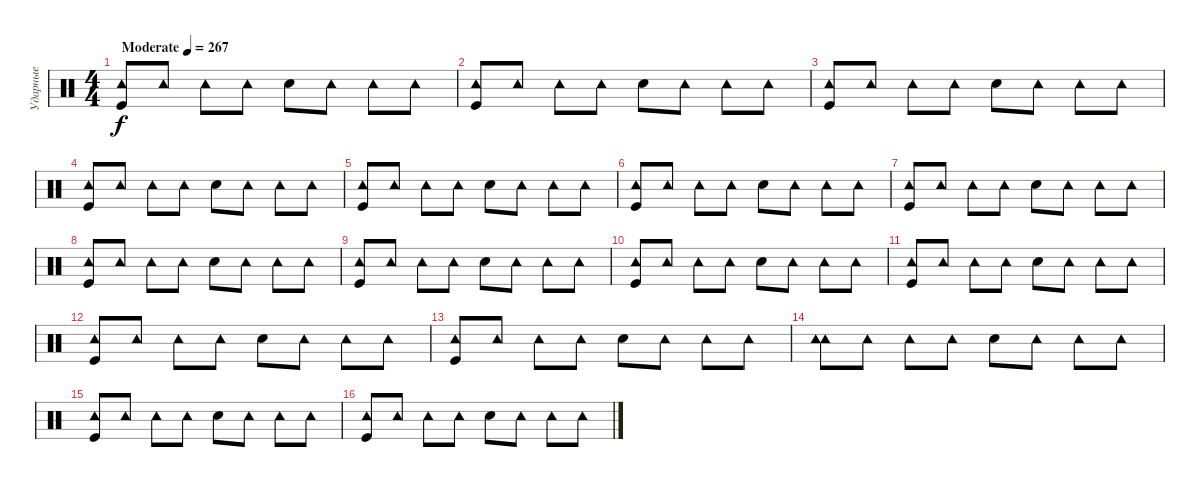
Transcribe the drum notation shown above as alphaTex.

\track ("Ударные" "Ударные") {instrument percussion}
\staff {score}
\articulation defaults
\ts (4 4)
\tempo (267 "Moderate")
\clef neutral
\ks c
("Kick (hit)" "Tambourine (hit)").8{dy f} "Tambourine (hit)".8 "Tambourine (hit)".8 "Tambourine (hit)".8 "Snare (hit) 2".8 "Tambourine (hit)".8 "Tambourine (hit)".8 "Tambourine (hit)".8 |
("Kick (hit)" "Tambourine (hit)").8 "Tambourine (hit)".8 "Tambourine (hit)".8 "Tambourine (hit)".8 "Snare (hit) 2".8 "Tambourine (hit)".8 "Tambourine (hit)".8 "Tambourine (hit)".8 |
("Kick (hit)" "Tambourine (hit)").8 "Tambourine (hit)".8 "Tambourine (hit)".8 "Tambourine (hit)".8 "Snare (hit) 2".8 "Tambourine (hit)".8 "Tambourine (hit)".8 "Tambourine (hit)".8 |
("Kick (hit)" "Tambourine (hit)").8 "Tambourine (hit)".8 "Tambourine (hit)".8 "Tambourine (hit)".8 "Snare (hit) 2".8 "Tambourine (hit)".8 "Tambourine (hit)".8 "Tambourine (hit)".8 |
("Kick (hit)" "Tambourine (hit)").8 "Tambourine (hit)".8 "Tambourine (hit)".8 "Tambourine (hit)".8 "Snare (hit) 2".8 "Tambourine (hit)".8 "Tambourine (hit)".8 "Tambourine (hit)".8 |
("Kick (hit)" "Tambourine (hit)").8 "Tambourine (hit)".8 "Tambourine (hit)".8 "Tambourine (hit)".8 "Snare (hit) 2".8 "Tambourine (hit)".8 "Tambourine (hit)".8 "Tambourine (hit)".8 |
("Kick (hit)" "Tambourine (hit)").8 "Tambourine (hit)".8 "Tambourine (hit)".8 "Tambourine (hit)".8 "Snare (hit) 2".8 "Tambourine (hit)".8 "Tambourine (hit)".8 "Tambourine (hit)".8 |
("Kick (hit)" "Tambourine (hit)").8 "Tambourine (hit)".8 "Tambourine (hit)".8 "Tambourine (hit)".8 "Snare (hit) 2".8 "Tambourine (hit)".8 "Tambourine (hit)".8 "Tambourine (hit)".8 |
("Kick (hit)" "Tambourine (hit)").8 "Tambourine (hit)".8 "Tambourine (hit)".8 "Tambourine (hit)".8 "Snare (hit) 2".8 "Tambourine (hit)".8 "Tambourine (hit)".8 "Tambourine (hit)".8 |
("Kick (hit)" "Tambourine (hit)").8 "Tambourine (hit)".8 "Tambourine (hit)".8 "Tambourine (hit)".8 "Snare (hit) 2".8 "Tambourine (hit)".8 "Tambourine (hit)".8 "Tambourine (hit)".8 |
("Kick (hit)" "Tambourine (hit)").8 "Tambourine (hit)".8 "Tambourine (hit)".8 "Tambourine (hit)".8 "Snare (hit) 2".8 "Tambourine (hit)".8 "Tambourine (hit)".8 "Tambourine (hit)".8 |
("Kick (hit)" "Tambourine (hit)").8 "Tambourine (hit)".8 "Tambourine (hit)".8 "Tambourine (hit)".8 "Snare (hit) 2".8 "Tambourine (hit)".8 "Tambourine (hit)".8 "Tambourine (hit)".8 |
("Kick (hit)" "Tambourine (hit)").8 "Tambourine (hit)".8 "Tambourine (hit)".8 "Tambourine (hit)".8 "Snare (hit) 2".8 "Tambourine (hit)".8 "Tambourine (hit)".8 "Tambourine (hit)".8 |
("Tambourine (hit)" "Tambourine (hit)").8 "Tambourine (hit)".8 "Tambourine (hit)".8 "Tambourine (hit)".8 "Snare (hit) 2".8 "Tambourine (hit)".8 "Tambourine (hit)".8 "Tambourine (hit)".8 |
("Kick (hit)" "Tambourine (hit)").8 "Tambourine (hit)".8 "Tambourine (hit)".8 "Tambourine (hit)".8 "Snare (hit) 2".8 "Tambourine (hit)".8 "Tambourine (hit)".8 "Tambourine (hit)".8 |
("Kick (hit)" "Tambourine (hit)").8 "Tambourine (hit)".8 "Tambourine (hit)".8 "Tambourine (hit)".8 "Snare (hit) 2".8 "Tambourine (hit)".8 "Tambourine (hit)".8 "Tambourine (hit)".8
